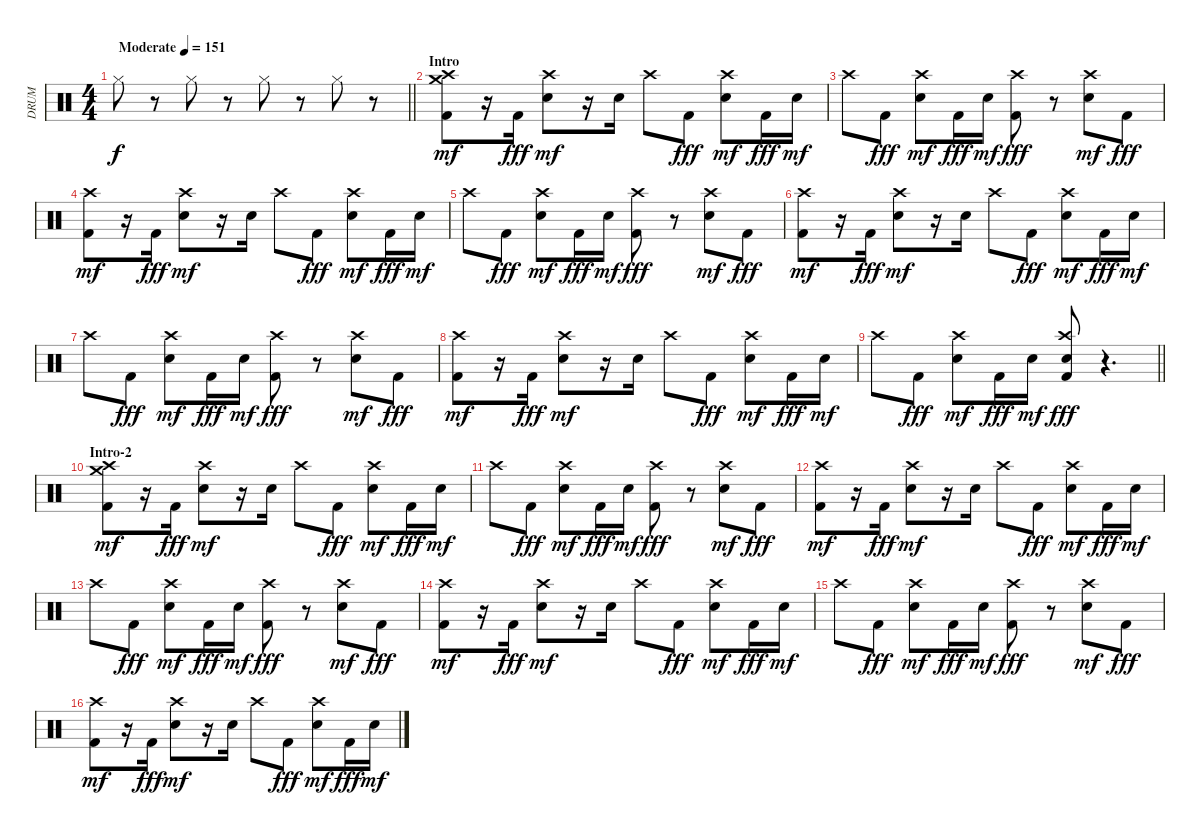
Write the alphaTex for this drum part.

\track ("DRUM" "DRUM") {instrument percussion}
\staff {score}
\articulation defaults
\ts (4 4)
\tempo (151 "Moderate")
\clef neutral
\barLineRight lightlight
\ks c "Hi-Hat (closed)".8{dy f}
r.8 "Hi-Hat (closed)".8 r.8 "Hi-Hat (closed)".8 r.8 "Hi-Hat (closed)".8 r.8 |
\section ("" "Intro")
("Crash medium (hit)" "Kick (hit) 2" "Crash high (hit)").8{dy mf} r.16 "Kick (hit) 2".16{dy fff} ("Electric Snare (hit)" "Crash high (hit)").8{dy mf} r.16 "Electric Snare (hit)".16 "Crash high (hit)".8 "Kick (hit) 2".8{dy fff} ("Electric Snare (hit)" "Crash high (hit)").8{dy mf} "Kick (hit) 2".16{dy fff} "Electric Snare (hit)".16{dy mf} |
"Crash high (hit)".8 "Kick (hit) 2".8{dy fff} ("Electric Snare (hit)" "Crash high (hit)").8{dy mf} "Kick (hit) 2".16{dy fff} "Electric Snare (hit)".16{dy mf} ("Crash high (hit)" "Kick (hit) 2").8{dy fff} r.8 ("Electric Snare (hit)" "Crash high (hit)").8{dy mf} "Kick (hit) 2".8{dy fff} |
("Kick (hit) 2" "Crash high (hit)").8{dy mf} r.16 "Kick (hit) 2".16{dy fff} ("Electric Snare (hit)" "Crash high (hit)").8{dy mf} r.16 "Electric Snare (hit)".16 "Crash high (hit)".8 "Kick (hit) 2".8{dy fff} ("Electric Snare (hit)" "Crash high (hit)").8{dy mf} "Kick (hit) 2".16{dy fff} "Electric Snare (hit)".16{dy mf} |
"Crash high (hit)".8 "Kick (hit) 2".8{dy fff} ("Electric Snare (hit)" "Crash high (hit)").8{dy mf} "Kick (hit) 2".16{dy fff} "Electric Snare (hit)".16{dy mf} ("Crash high (hit)" "Kick (hit) 2").8{dy fff} r.8 ("Electric Snare (hit)" "Crash high (hit)").8{dy mf} "Kick (hit) 2".8{dy fff} |
("Kick (hit) 2" "Crash high (hit)").8{dy mf} r.16 "Kick (hit) 2".16{dy fff} ("Electric Snare (hit)" "Crash high (hit)").8{dy mf} r.16 "Electric Snare (hit)".16 "Crash high (hit)".8 "Kick (hit) 2".8{dy fff} ("Electric Snare (hit)" "Crash high (hit)").8{dy mf} "Kick (hit) 2".16{dy fff} "Electric Snare (hit)".16{dy mf} |
"Crash high (hit)".8 "Kick (hit) 2".8{dy fff} ("Electric Snare (hit)" "Crash high (hit)").8{dy mf} "Kick (hit) 2".16{dy fff} "Electric Snare (hit)".16{dy mf} ("Crash high (hit)" "Kick (hit) 2").8{dy fff} r.8 ("Electric Snare (hit)" "Crash high (hit)").8{dy mf} "Kick (hit) 2".8{dy fff} |
("Kick (hit) 2" "Crash high (hit)").8{dy mf} r.16 "Kick (hit) 2".16{dy fff} ("Electric Snare (hit)" "Crash high (hit)").8{dy mf} r.16 "Electric Snare (hit)".16 "Crash high (hit)".8 "Kick (hit) 2".8{dy fff} ("Electric Snare (hit)" "Crash high (hit)").8{dy mf} "Kick (hit) 2".16{dy fff} "Electric Snare (hit)".16{dy mf} |
\barLineRight lightlight "Crash high (hit)".8 "Kick (hit) 2".8{dy fff}
("Electric Snare (hit)" "Crash high (hit)").8{dy mf} "Kick (hit) 2".16{dy fff} "Electric Snare (hit)".16{dy mf} ("Electric Snare (hit)" "Crash high (hit)" "Kick (hit) 2").8{dy fff} r.4{d} |
\section ("" "Intro-2")
("Crash medium (hit)" "Kick (hit) 2" "Crash high (hit)").8{dy mf} r.16 "Kick (hit) 2".16{dy fff} ("Electric Snare (hit)" "Crash high (hit)").8{dy mf} r.16 "Electric Snare (hit)".16 "Crash high (hit)".8 "Kick (hit) 2".8{dy fff} ("Electric Snare (hit)" "Crash high (hit)").8{dy mf} "Kick (hit) 2".16{dy fff} "Electric Snare (hit)".16{dy mf} |
"Crash high (hit)".8 "Kick (hit) 2".8{dy fff} ("Electric Snare (hit)" "Crash high (hit)").8{dy mf} "Kick (hit) 2".16{dy fff} "Electric Snare (hit)".16{dy mf} ("Crash high (hit)" "Kick (hit) 2").8{dy fff} r.8 ("Electric Snare (hit)" "Crash high (hit)").8{dy mf} "Kick (hit) 2".8{dy fff} |
("Kick (hit) 2" "Crash high (hit)").8{dy mf} r.16 "Kick (hit) 2".16{dy fff} ("Electric Snare (hit)" "Crash high (hit)").8{dy mf} r.16 "Electric Snare (hit)".16 "Crash high (hit)".8 "Kick (hit) 2".8{dy fff} ("Electric Snare (hit)" "Crash high (hit)").8{dy mf} "Kick (hit) 2".16{dy fff} "Electric Snare (hit)".16{dy mf} |
"Crash high (hit)".8 "Kick (hit) 2".8{dy fff} ("Electric Snare (hit)" "Crash high (hit)").8{dy mf} "Kick (hit) 2".16{dy fff} "Electric Snare (hit)".16{dy mf} ("Crash high (hit)" "Kick (hit) 2").8{dy fff} r.8 ("Electric Snare (hit)" "Crash high (hit)").8{dy mf} "Kick (hit) 2".8{dy fff} |
("Kick (hit) 2" "Crash high (hit)").8{dy mf} r.16 "Kick (hit) 2".16{dy fff} ("Electric Snare (hit)" "Crash high (hit)").8{dy mf} r.16 "Electric Snare (hit)".16 "Crash high (hit)".8 "Kick (hit) 2".8{dy fff} ("Electric Snare (hit)" "Crash high (hit)").8{dy mf} "Kick (hit) 2".16{dy fff} "Electric Snare (hit)".16{dy mf} |
"Crash high (hit)".8 "Kick (hit) 2".8{dy fff} ("Electric Snare (hit)" "Crash high (hit)").8{dy mf} "Kick (hit) 2".16{dy fff} "Electric Snare (hit)".16{dy mf} ("Crash high (hit)" "Kick (hit) 2").8{dy fff} r.8 ("Electric Snare (hit)" "Crash high (hit)").8{dy mf} "Kick (hit) 2".8{dy fff} |
("Kick (hit) 2" "Crash high (hit)").8{dy mf} r.16 "Kick (hit) 2".16{dy fff} ("Electric Snare (hit)" "Crash high (hit)").8{dy mf} r.16 "Electric Snare (hit)".16 "Crash high (hit)".8 "Kick (hit) 2".8{dy fff} ("Electric Snare (hit)" "Crash high (hit)").8{dy mf} "Kick (hit) 2".16{dy fff} "Electric Snare (hit)".16{dy mf}
